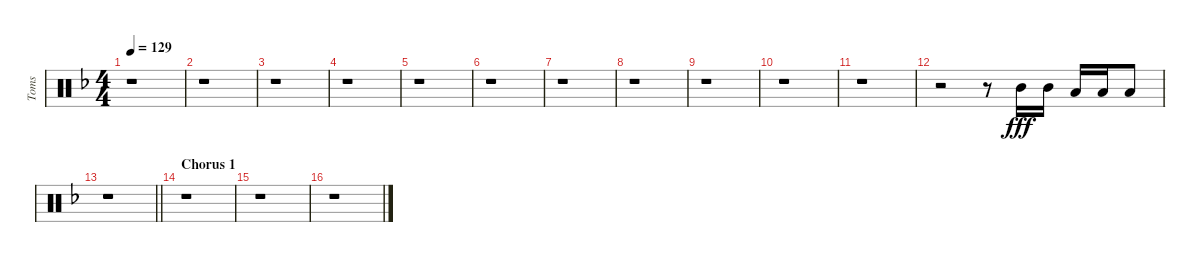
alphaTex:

\track ("Toms" "Toms") {instrument percussion}
\staff {score}
\articulation defaults
\ts (4 4)
\tempo 129
\clef neutral
\ks dminor
r.1{dy ff} |
r.1 |
r.1 |
r.1 |
r.1 |
r.1 |
r.1 |
r.1 |
r.1 |
r.1 |
r.1 |
r.2 r.8 "Mid Tom (hit)".16{dy fff balance 10} "Mid Tom (hit)".16 "Low Tom (hit)".16{balance 6} "Low Tom (hit)".16 "Low Tom (hit)".8 |
\barLineRight lightlight
r.1 |
\section ("" "Chorus 1")
r.1 |
r.1 |
r.1
